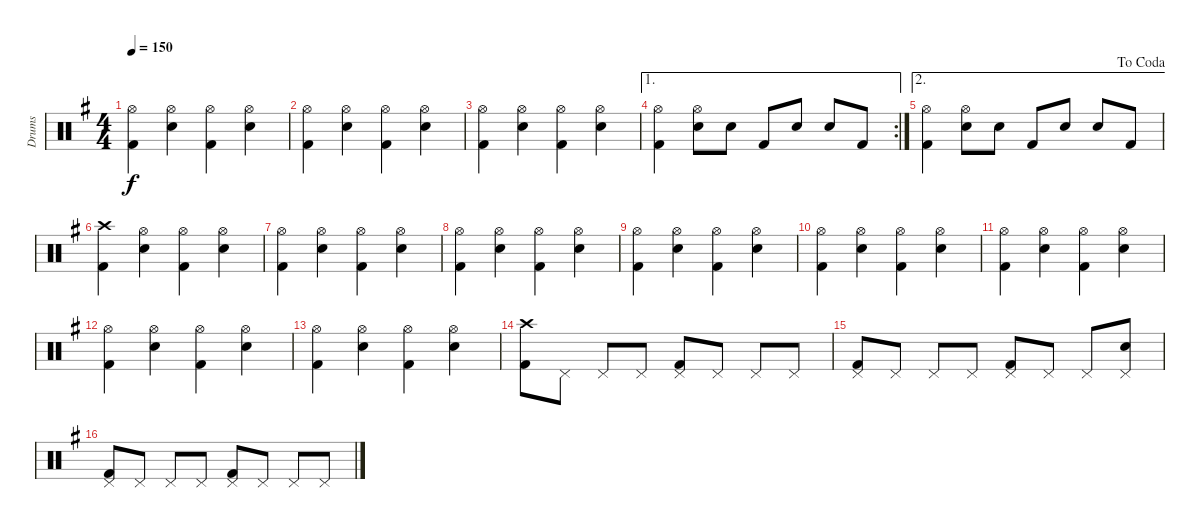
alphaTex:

\track ("Drums" "Drums") {instrument percussion}
\staff {score}
\articulation defaults
\ts (4 4)
\tempo 150
\clef neutral
\ks g
("Hi-Hat (open)" "Kick (hit) 2").4{dy f} ("Hi-Hat (open)" "Electric Snare (hit)").4 ("Hi-Hat (open)" "Kick (hit) 2").4 ("Hi-Hat (open)" "Electric Snare (hit)").4 |
("Hi-Hat (open)" "Kick (hit) 2").4 ("Hi-Hat (open)" "Electric Snare (hit)").4 ("Hi-Hat (open)" "Kick (hit) 2").4 ("Hi-Hat (open)" "Electric Snare (hit)").4 |
("Hi-Hat (open)" "Kick (hit) 2").4 ("Hi-Hat (open)" "Electric Snare (hit)").4 ("Hi-Hat (open)" "Kick (hit) 2").4 ("Hi-Hat (open)" "Electric Snare (hit)").4 |
\ae 1
\rc 2
("Hi-Hat (open)" "Kick (hit) 2").4 ("Hi-Hat (open)" "Electric Snare (hit)").8 "Electric Snare (hit)".8 "Kick (hit) 2".8 "Electric Snare (hit)".8 "Electric Snare (hit)".8 "Kick (hit) 2".8 |
\ae 2
\jump dacoda
("Hi-Hat (open)" "Kick (hit) 2").4 ("Hi-Hat (open)" "Electric Snare (hit)").8 "Electric Snare (hit)".8 "Kick (hit) 2".8 "Electric Snare (hit)".8 "Electric Snare (hit)".8 "Kick (hit) 2".8 |
("Crash high (hit)" "Kick (hit) 2").4 ("Hi-Hat (open)" "Electric Snare (hit)").4 ("Hi-Hat (open)" "Kick (hit) 2").4 ("Hi-Hat (open)" "Electric Snare (hit)").4 |
("Hi-Hat (open)" "Kick (hit) 2").4 ("Hi-Hat (open)" "Electric Snare (hit)").4 ("Hi-Hat (open)" "Kick (hit) 2").4 ("Hi-Hat (open)" "Electric Snare (hit)").4 |
("Hi-Hat (open)" "Kick (hit) 2").4 ("Hi-Hat (open)" "Electric Snare (hit)").4 ("Hi-Hat (open)" "Kick (hit) 2").4 ("Hi-Hat (open)" "Electric Snare (hit)").4 |
("Hi-Hat (open)" "Kick (hit) 2").4 ("Hi-Hat (open)" "Electric Snare (hit)").4 ("Hi-Hat (open)" "Kick (hit) 2").4 ("Hi-Hat (open)" "Electric Snare (hit)").4 |
("Hi-Hat (open)" "Kick (hit) 2").4 ("Hi-Hat (open)" "Electric Snare (hit)").4 ("Hi-Hat (open)" "Kick (hit) 2").4 ("Hi-Hat (open)" "Electric Snare (hit)").4 |
("Hi-Hat (open)" "Kick (hit) 2").4 ("Hi-Hat (open)" "Electric Snare (hit)").4 ("Hi-Hat (open)" "Kick (hit) 2").4 ("Hi-Hat (open)" "Electric Snare (hit)").4 |
("Hi-Hat (open)" "Kick (hit) 2").4 ("Hi-Hat (open)" "Electric Snare (hit)").4 ("Hi-Hat (open)" "Kick (hit) 2").4 ("Hi-Hat (open)" "Electric Snare (hit)").4 |
("Hi-Hat (open)" "Kick (hit) 2").4 ("Hi-Hat (open)" "Electric Snare (hit)").4 ("Hi-Hat (open)" "Kick (hit) 2").4 ("Hi-Hat (open)" "Electric Snare (hit)").4 |
("Crash high (hit)" "Kick (hit) 2").8 "Pedal Hi-Hat (hit)".8 "Pedal Hi-Hat (hit)".8 "Pedal Hi-Hat (hit)".8 ("Pedal Hi-Hat (hit)" "Kick (hit) 2").8 "Pedal Hi-Hat (hit)".8 "Pedal Hi-Hat (hit)".8 "Pedal Hi-Hat (hit)".8 |
("Pedal Hi-Hat (hit)" "Kick (hit) 2").8 "Pedal Hi-Hat (hit)".8 "Pedal Hi-Hat (hit)".8 "Pedal Hi-Hat (hit)".8 ("Pedal Hi-Hat (hit)" "Kick (hit) 2").8 "Pedal Hi-Hat (hit)".8 "Pedal Hi-Hat (hit)".8 ("Pedal Hi-Hat (hit)" "Electric Snare (hit)").8 |
("Pedal Hi-Hat (hit)" "Kick (hit) 2").8 "Pedal Hi-Hat (hit)".8 "Pedal Hi-Hat (hit)".8 "Pedal Hi-Hat (hit)".8 ("Pedal Hi-Hat (hit)" "Kick (hit) 2").8 "Pedal Hi-Hat (hit)".8 "Pedal Hi-Hat (hit)".8 "Pedal Hi-Hat (hit)".8
